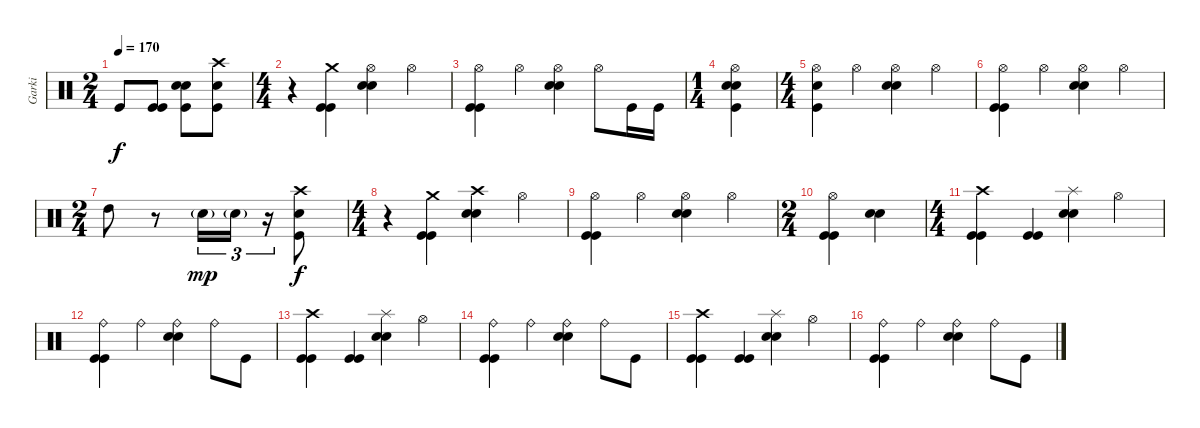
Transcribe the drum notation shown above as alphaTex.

\track ("Garki" "Garki") {instrument percussion}
\staff {score}
\articulation defaults
\ts (2 4)
\tempo 170
\clef neutral
\ks c "Kick (hit)".8{dy f}
("Kick (hit)" "Kick (hit)").8 ("Kick (hit)" "Electric Snare (hit)" "Electric Snare (hit)").8 ("Kick (hit)" "Electric Snare (hit)" "Crash high (hit)").8 |
\ts (4 4)
r.4 ("Kick (hit)" "Kick (hit)" "Crash medium (hit)").4 ("Electric Snare (hit)" "Electric Snare (hit)" "Hi-Hat (open)").4 "Hi-Hat (open)".4 |
("Kick (hit)" "Kick (hit)" "Hi-Hat (open)").4 "Hi-Hat (open)".4 ("Electric Snare (hit)" "Electric Snare (hit)" "Hi-Hat (open)").4 "Hi-Hat (open)".8 "Kick (hit)".16 "Kick (hit)".16 |
\ts (1 4)
("Kick (hit)" "Electric Snare (hit)" "Electric Snare (hit)" "Hi-Hat (open)").4 |
\ts (4 4)
("Kick (hit)" "Electric Snare (hit)" "Hi-Hat (open)").4 "Hi-Hat (open)".4 ("Electric Snare (hit)" "Electric Snare (hit)" "Hi-Hat (open)").4 "Hi-Hat (open)".4 |
("Kick (hit)" "Kick (hit)" "Hi-Hat (open)").4 "Hi-Hat (open)".4 ("Electric Snare (hit)" "Electric Snare (hit)" "Hi-Hat (open)").4 "Hi-Hat (open)".4 |
\ts (2 4)
"High Tom (hit)".8 r.8 "Electric Snare (hit)"{g}.16{tu (3 2) dy mp} "Electric Snare (hit)"{g}.16{tu (3 2)} r.16{tu (3 2)} ("Kick (hit)" "Electric Snare (hit)" "Crash high (hit)").8{dy f} |
\ts (4 4)
r.4 ("Kick (hit)" "Kick (hit)" "Crash medium (hit)").4 ("Electric Snare (hit)" "Electric Snare (hit)" "Crash high (hit)").4 "Hi-Hat (open)".4 |
("Kick (hit)" "Kick (hit)" "Hi-Hat (open)").4 "Hi-Hat (open)".4 ("Electric Snare (hit)" "Electric Snare (hit)" "Hi-Hat (open)").4 "Hi-Hat (open)".4 |
\ts (2 4)
("Kick (hit)" "Kick (hit)" "Hi-Hat (open)").4 ("Electric Snare (hit)" "Electric Snare (hit)").4 |
\ts (4 4)
("Kick (hit)" "Kick (hit)" "Crash high (hit)").4 ("Kick (hit)" "Kick (hit)").4 ("Electric Snare (hit)" "Electric Snare (hit)" "Splash (hit)").4 "Hi-Hat (open)".4 |
("Kick (hit)" "Kick (hit)" "Ride (bell)").4 "Ride (bell)".4 ("Electric Snare (hit)" "Electric Snare (hit)" "Ride (bell)").4 "Ride (bell)".8 "Kick (hit)".8 |
("Kick (hit)" "Kick (hit)" "Crash high (hit)").4 ("Kick (hit)" "Kick (hit)").4 ("Electric Snare (hit)" "Electric Snare (hit)" "Splash (hit)").4 "Hi-Hat (open)".4 |
("Kick (hit)" "Kick (hit)" "Ride (bell)").4 "Ride (bell)".4 ("Electric Snare (hit)" "Electric Snare (hit)" "Ride (bell)").4 "Ride (bell)".8 "Kick (hit)".8 |
("Kick (hit)" "Kick (hit)" "Crash high (hit)").4 ("Kick (hit)" "Kick (hit)").4 ("Electric Snare (hit)" "Electric Snare (hit)" "Splash (hit)").4 "Hi-Hat (open)".4 |
("Kick (hit)" "Kick (hit)" "Ride (bell)").4 "Ride (bell)".4 ("Electric Snare (hit)" "Electric Snare (hit)" "Ride (bell)").4 "Ride (bell)".8 "Kick (hit)".8
